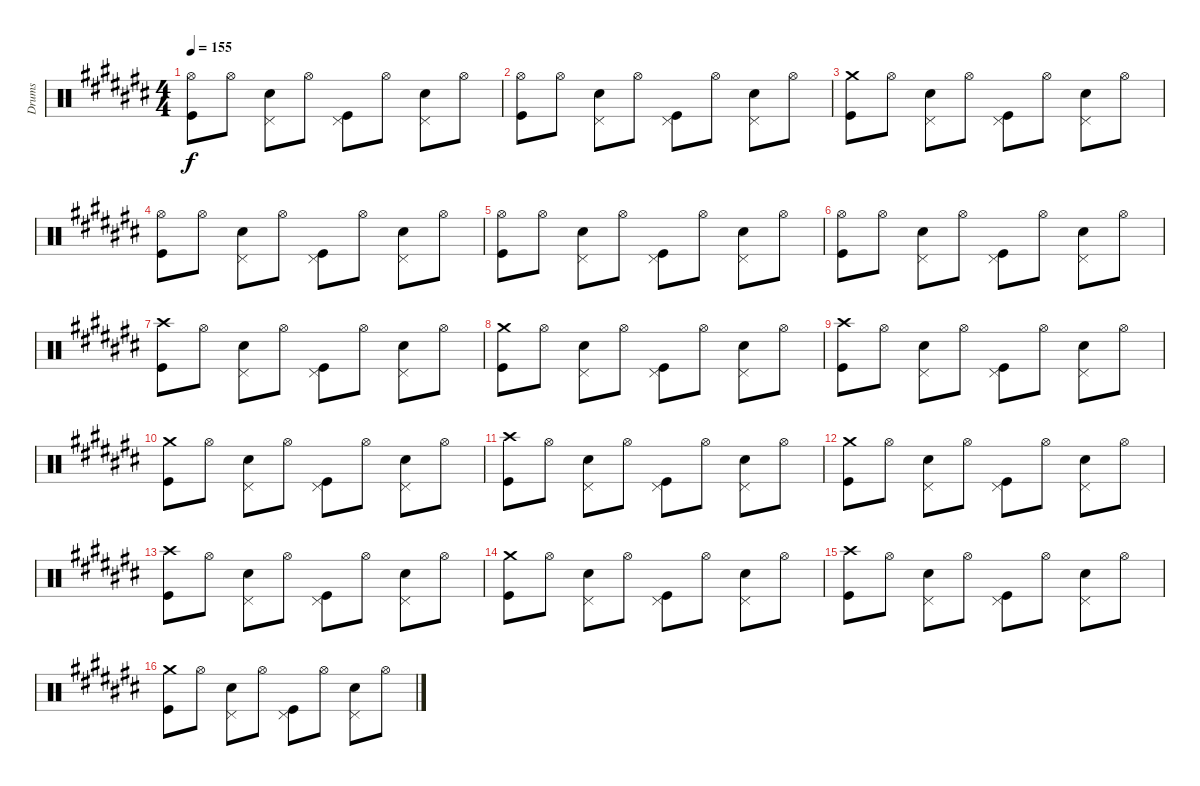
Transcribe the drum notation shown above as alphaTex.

\track ("Drums" "Drums") {instrument percussion}
\staff {score}
\articulation defaults
\ts (4 4)
\tempo 155
\clef neutral
\ks c#
("Hi-Hat (open)" "Kick (hit)").8{dy f} "Hi-Hat (open)".8 ("Pedal Hi-Hat (hit)" "Snare (hit) 2").8 "Hi-Hat (open)".8 ("Pedal Hi-Hat (hit)" "Kick (hit)").8 "Hi-Hat (open)".8 ("Pedal Hi-Hat (hit)" "Snare (hit) 2").8 "Hi-Hat (open)".8 |
("Hi-Hat (open)" "Kick (hit)").8 "Hi-Hat (open)".8 ("Pedal Hi-Hat (hit)" "Snare (hit) 2").8 "Hi-Hat (open)".8 ("Pedal Hi-Hat (hit)" "Kick (hit)").8 "Hi-Hat (open)".8 ("Pedal Hi-Hat (hit)" "Snare (hit) 2").8 "Hi-Hat (open)".8 |
("Crash medium (hit)" "Kick (hit)").8 "Hi-Hat (open)".8 ("Pedal Hi-Hat (hit)" "Snare (hit) 2").8 "Hi-Hat (open)".8 ("Pedal Hi-Hat (hit)" "Kick (hit)").8 "Hi-Hat (open)".8 ("Pedal Hi-Hat (hit)" "Snare (hit) 2").8 "Hi-Hat (open)".8 |
("Hi-Hat (open)" "Kick (hit)").8 "Hi-Hat (open)".8 ("Pedal Hi-Hat (hit)" "Snare (hit) 2").8 "Hi-Hat (open)".8 ("Pedal Hi-Hat (hit)" "Kick (hit)").8 "Hi-Hat (open)".8 ("Pedal Hi-Hat (hit)" "Snare (hit) 2").8 "Hi-Hat (open)".8 |
("Hi-Hat (open)" "Kick (hit)").8 "Hi-Hat (open)".8 ("Pedal Hi-Hat (hit)" "Snare (hit) 2").8 "Hi-Hat (open)".8 ("Pedal Hi-Hat (hit)" "Kick (hit)").8 "Hi-Hat (open)".8 ("Pedal Hi-Hat (hit)" "Snare (hit) 2").8 "Hi-Hat (open)".8 |
("Hi-Hat (open)" "Kick (hit)").8 "Hi-Hat (open)".8 ("Pedal Hi-Hat (hit)" "Snare (hit) 2").8 "Hi-Hat (open)".8 ("Pedal Hi-Hat (hit)" "Kick (hit)").8 "Hi-Hat (open)".8 ("Pedal Hi-Hat (hit)" "Snare (hit) 2").8 "Hi-Hat (open)".8 |
("Crash high (hit)" "Kick (hit)").8 "Hi-Hat (open)".8 ("Pedal Hi-Hat (hit)" "Snare (hit) 2").8 "Hi-Hat (open)".8 ("Pedal Hi-Hat (hit)" "Kick (hit)").8 "Hi-Hat (open)".8 ("Pedal Hi-Hat (hit)" "Snare (hit) 2").8 "Hi-Hat (open)".8 |
("Crash medium (hit)" "Kick (hit)").8 "Hi-Hat (open)".8 ("Pedal Hi-Hat (hit)" "Snare (hit) 2").8 "Hi-Hat (open)".8 ("Pedal Hi-Hat (hit)" "Kick (hit)").8 "Hi-Hat (open)".8 ("Pedal Hi-Hat (hit)" "Snare (hit) 2").8 "Hi-Hat (open)".8 |
("Crash high (hit)" "Kick (hit)").8 "Hi-Hat (open)".8 ("Pedal Hi-Hat (hit)" "Snare (hit) 2").8 "Hi-Hat (open)".8 ("Pedal Hi-Hat (hit)" "Kick (hit)").8 "Hi-Hat (open)".8 ("Pedal Hi-Hat (hit)" "Snare (hit) 2").8 "Hi-Hat (open)".8 |
("Crash medium (hit)" "Kick (hit)").8 "Hi-Hat (open)".8 ("Pedal Hi-Hat (hit)" "Snare (hit) 2").8 "Hi-Hat (open)".8 ("Pedal Hi-Hat (hit)" "Kick (hit)").8 "Hi-Hat (open)".8 ("Pedal Hi-Hat (hit)" "Snare (hit) 2").8 "Hi-Hat (open)".8 |
("Crash high (hit)" "Kick (hit)").8 "Hi-Hat (open)".8 ("Pedal Hi-Hat (hit)" "Snare (hit) 2").8 "Hi-Hat (open)".8 ("Pedal Hi-Hat (hit)" "Kick (hit)").8 "Hi-Hat (open)".8 ("Pedal Hi-Hat (hit)" "Snare (hit) 2").8 "Hi-Hat (open)".8 |
("Crash medium (hit)" "Kick (hit)").8 "Hi-Hat (open)".8 ("Pedal Hi-Hat (hit)" "Snare (hit) 2").8 "Hi-Hat (open)".8 ("Pedal Hi-Hat (hit)" "Kick (hit)").8 "Hi-Hat (open)".8 ("Pedal Hi-Hat (hit)" "Snare (hit) 2").8 "Hi-Hat (open)".8 |
("Crash high (hit)" "Kick (hit)").8 "Hi-Hat (open)".8 ("Pedal Hi-Hat (hit)" "Snare (hit) 2").8 "Hi-Hat (open)".8 ("Pedal Hi-Hat (hit)" "Kick (hit)").8 "Hi-Hat (open)".8 ("Pedal Hi-Hat (hit)" "Snare (hit) 2").8 "Hi-Hat (open)".8 |
("Crash medium (hit)" "Kick (hit)").8 "Hi-Hat (open)".8 ("Pedal Hi-Hat (hit)" "Snare (hit) 2").8 "Hi-Hat (open)".8 ("Pedal Hi-Hat (hit)" "Kick (hit)").8 "Hi-Hat (open)".8 ("Pedal Hi-Hat (hit)" "Snare (hit) 2").8 "Hi-Hat (open)".8 |
("Crash high (hit)" "Kick (hit)").8 "Hi-Hat (open)".8 ("Pedal Hi-Hat (hit)" "Snare (hit) 2").8 "Hi-Hat (open)".8 ("Pedal Hi-Hat (hit)" "Kick (hit)").8 "Hi-Hat (open)".8 ("Pedal Hi-Hat (hit)" "Snare (hit) 2").8 "Hi-Hat (open)".8 |
("Crash medium (hit)" "Kick (hit)").8 "Hi-Hat (open)".8 ("Pedal Hi-Hat (hit)" "Snare (hit) 2").8 "Hi-Hat (open)".8 ("Pedal Hi-Hat (hit)" "Kick (hit)").8 "Hi-Hat (open)".8 ("Pedal Hi-Hat (hit)" "Snare (hit) 2").8 "Hi-Hat (open)".8
